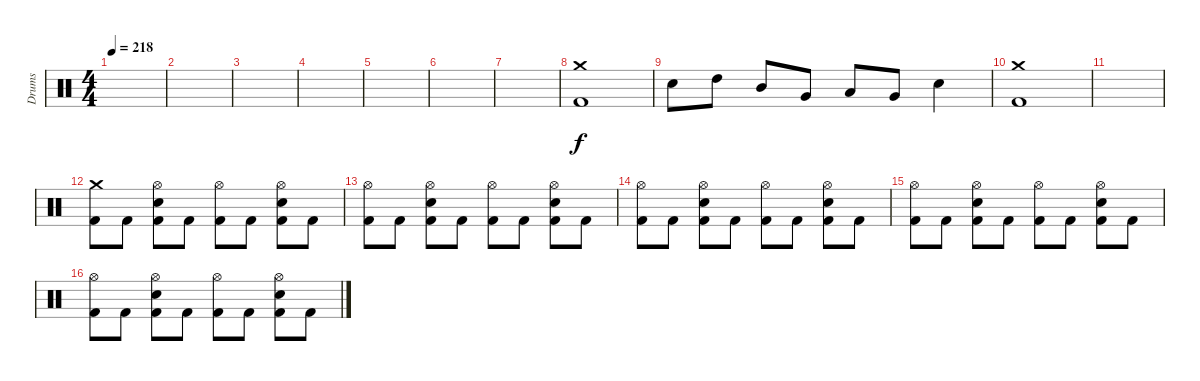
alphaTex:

\track ("Drums" "Drums") {instrument percussion}
\staff {score}
\articulation defaults
\ts (4 4)
\tempo 218
\clef neutral
\ks c
|
|
|
|
|
|
|
("Crash medium (hit)" "Kick (hit) 2").1 |
"Snare (hit) 2".8 "High Tom (hit)".8 "Mid Tom (hit)".8 "Very Low Tom (hit)".8 "Low Tom (hit)".8 "Very Low Tom (hit)".8 "Snare (hit) 2".4 |
("Crash medium (hit)" "Kick (hit) 2").1 |
|
("Crash medium (hit)" "Kick (hit) 2").8 "Kick (hit) 2".8 ("Hi-Hat (open)" "Snare (hit) 2" "Kick (hit) 2").8 "Kick (hit) 2".8 ("Hi-Hat (open)" "Kick (hit) 2").8 "Kick (hit) 2".8 ("Hi-Hat (open)" "Snare (hit) 2" "Kick (hit) 2").8 "Kick (hit) 2".8 |
("Hi-Hat (open)" "Kick (hit) 2").8 "Kick (hit) 2".8 ("Hi-Hat (open)" "Snare (hit) 2" "Kick (hit) 2").8 "Kick (hit) 2".8 ("Hi-Hat (open)" "Kick (hit) 2").8 "Kick (hit) 2".8 ("Hi-Hat (open)" "Snare (hit) 2" "Kick (hit) 2").8 "Kick (hit) 2".8 |
("Hi-Hat (open)" "Kick (hit) 2").8 "Kick (hit) 2".8 ("Hi-Hat (open)" "Snare (hit) 2" "Kick (hit) 2").8 "Kick (hit) 2".8 ("Hi-Hat (open)" "Kick (hit) 2").8 "Kick (hit) 2".8 ("Hi-Hat (open)" "Snare (hit) 2" "Kick (hit) 2").8 "Kick (hit) 2".8 |
("Hi-Hat (open)" "Kick (hit) 2").8 "Kick (hit) 2".8 ("Hi-Hat (open)" "Snare (hit) 2" "Kick (hit) 2").8 "Kick (hit) 2".8 ("Hi-Hat (open)" "Kick (hit) 2").8 "Kick (hit) 2".8 ("Hi-Hat (open)" "Snare (hit) 2" "Kick (hit) 2").8 "Kick (hit) 2".8 |
("Hi-Hat (open)" "Kick (hit) 2").8 "Kick (hit) 2".8 ("Hi-Hat (open)" "Snare (hit) 2" "Kick (hit) 2").8 "Kick (hit) 2".8 ("Hi-Hat (open)" "Kick (hit) 2").8 "Kick (hit) 2".8 ("Hi-Hat (open)" "Snare (hit) 2" "Kick (hit) 2").8 "Kick (hit) 2".8
